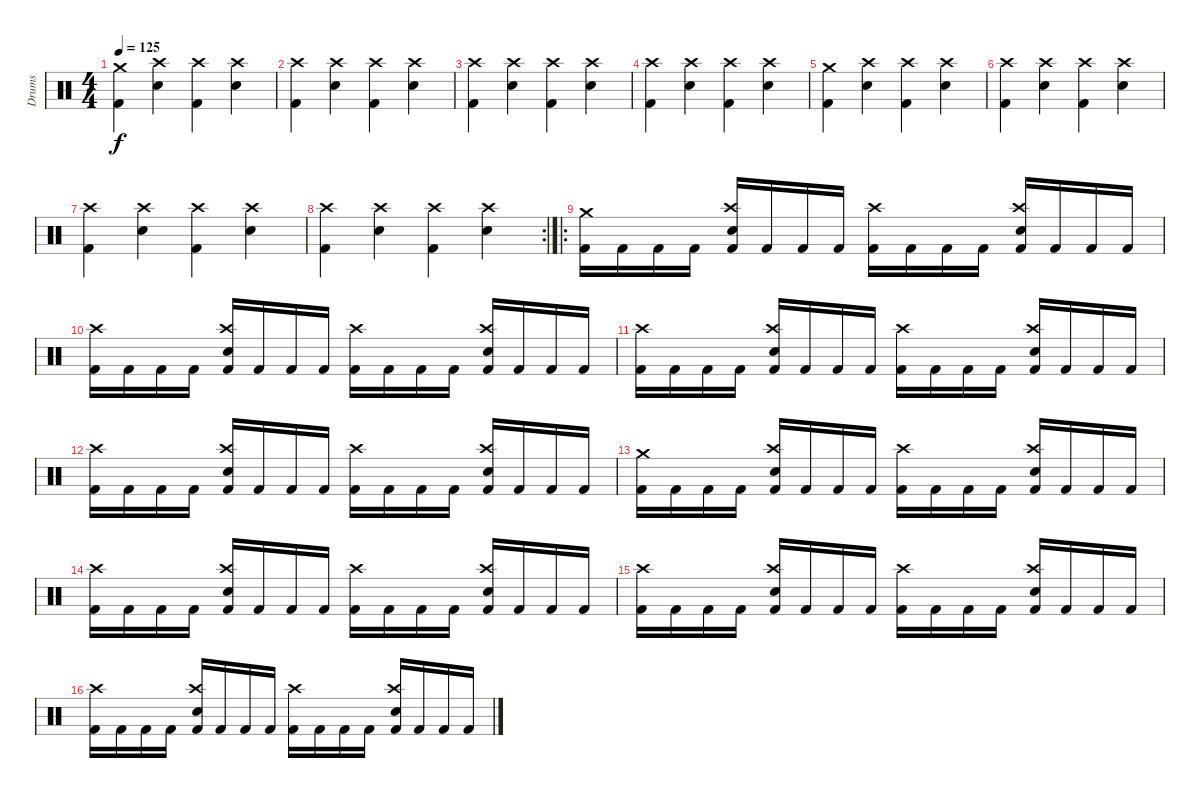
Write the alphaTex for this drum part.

\track ("Drums" "Drums") {instrument percussion}
\staff {score}
\articulation defaults
\ts (4 4)
\tempo 125
\clef neutral
\ks c
("Crash medium (hit)" "Kick (hit) 2").4{dy f} ("Crash high (hit)" "Electric Snare (hit)").4 ("Crash high (hit)" "Kick (hit) 2").4 ("Crash high (hit)" "Electric Snare (hit)").4 |
("Crash high (hit)" "Kick (hit) 2").4 ("Crash high (hit)" "Electric Snare (hit)").4 ("Crash high (hit)" "Kick (hit) 2").4 ("Crash high (hit)" "Electric Snare (hit)").4 |
("Crash high (hit)" "Kick (hit) 2").4 ("Crash high (hit)" "Electric Snare (hit)").4 ("Crash high (hit)" "Kick (hit) 2").4 ("Crash high (hit)" "Electric Snare (hit)").4 |
("Crash high (hit)" "Kick (hit) 2").4 ("Crash high (hit)" "Electric Snare (hit)").4 ("Crash high (hit)" "Kick (hit) 2").4 ("Crash high (hit)" "Electric Snare (hit)").4 |
("Crash medium (hit)" "Kick (hit) 2").4 ("Crash high (hit)" "Electric Snare (hit)").4 ("Crash high (hit)" "Kick (hit) 2").4 ("Crash high (hit)" "Electric Snare (hit)").4 |
("Crash high (hit)" "Kick (hit) 2").4 ("Crash high (hit)" "Electric Snare (hit)").4 ("Crash high (hit)" "Kick (hit) 2").4 ("Crash high (hit)" "Electric Snare (hit)").4 |
("Crash high (hit)" "Kick (hit) 2").4 ("Crash high (hit)" "Electric Snare (hit)").4 ("Crash high (hit)" "Kick (hit) 2").4 ("Crash high (hit)" "Electric Snare (hit)").4 |
\rc 2
("Crash high (hit)" "Kick (hit) 2").4 ("Crash high (hit)" "Electric Snare (hit)").4 ("Crash high (hit)" "Kick (hit) 2").4 ("Crash high (hit)" "Electric Snare (hit)").4 |
\ro
("Crash medium (hit)" "Kick (hit) 2").16 "Kick (hit) 2".16 "Kick (hit) 2".16 "Kick (hit) 2".16 ("Crash high (hit)" "Electric Snare (hit)" "Kick (hit) 2").16 "Kick (hit) 2".16 "Kick (hit) 2".16 "Kick (hit) 2".16 ("Crash high (hit)" "Kick (hit) 2").16 "Kick (hit) 2".16 "Kick (hit) 2".16 "Kick (hit) 2".16 ("Crash high (hit)" "Electric Snare (hit)" "Kick (hit) 2").16 "Kick (hit) 2".16 "Kick (hit) 2".16 "Kick (hit) 2".16 |
("Crash high (hit)" "Kick (hit) 2").16 "Kick (hit) 2".16 "Kick (hit) 2".16 "Kick (hit) 2".16 ("Crash high (hit)" "Electric Snare (hit)" "Kick (hit) 2").16 "Kick (hit) 2".16 "Kick (hit) 2".16 "Kick (hit) 2".16 ("Crash high (hit)" "Kick (hit) 2").16 "Kick (hit) 2".16 "Kick (hit) 2".16 "Kick (hit) 2".16 ("Crash high (hit)" "Electric Snare (hit)" "Kick (hit) 2").16 "Kick (hit) 2".16 "Kick (hit) 2".16 "Kick (hit) 2".16 |
("Crash high (hit)" "Kick (hit) 2").16 "Kick (hit) 2".16 "Kick (hit) 2".16 "Kick (hit) 2".16 ("Crash high (hit)" "Electric Snare (hit)" "Kick (hit) 2").16 "Kick (hit) 2".16 "Kick (hit) 2".16 "Kick (hit) 2".16 ("Crash high (hit)" "Kick (hit) 2").16 "Kick (hit) 2".16 "Kick (hit) 2".16 "Kick (hit) 2".16 ("Crash high (hit)" "Electric Snare (hit)" "Kick (hit) 2").16 "Kick (hit) 2".16 "Kick (hit) 2".16 "Kick (hit) 2".16 |
("Crash high (hit)" "Kick (hit) 2").16 "Kick (hit) 2".16 "Kick (hit) 2".16 "Kick (hit) 2".16 ("Crash high (hit)" "Electric Snare (hit)" "Kick (hit) 2").16 "Kick (hit) 2".16 "Kick (hit) 2".16 "Kick (hit) 2".16 ("Crash high (hit)" "Kick (hit) 2").16 "Kick (hit) 2".16 "Kick (hit) 2".16 "Kick (hit) 2".16 ("Crash high (hit)" "Electric Snare (hit)" "Kick (hit) 2").16 "Kick (hit) 2".16 "Kick (hit) 2".16 "Kick (hit) 2".16 |
("Crash medium (hit)" "Kick (hit) 2").16 "Kick (hit) 2".16 "Kick (hit) 2".16 "Kick (hit) 2".16 ("Crash high (hit)" "Electric Snare (hit)" "Kick (hit) 2").16 "Kick (hit) 2".16 "Kick (hit) 2".16 "Kick (hit) 2".16 ("Crash high (hit)" "Kick (hit) 2").16 "Kick (hit) 2".16 "Kick (hit) 2".16 "Kick (hit) 2".16 ("Crash high (hit)" "Electric Snare (hit)" "Kick (hit) 2").16 "Kick (hit) 2".16 "Kick (hit) 2".16 "Kick (hit) 2".16 |
("Crash high (hit)" "Kick (hit) 2").16 "Kick (hit) 2".16 "Kick (hit) 2".16 "Kick (hit) 2".16 ("Crash high (hit)" "Electric Snare (hit)" "Kick (hit) 2").16 "Kick (hit) 2".16 "Kick (hit) 2".16 "Kick (hit) 2".16 ("Crash high (hit)" "Kick (hit) 2").16 "Kick (hit) 2".16 "Kick (hit) 2".16 "Kick (hit) 2".16 ("Crash high (hit)" "Electric Snare (hit)" "Kick (hit) 2").16 "Kick (hit) 2".16 "Kick (hit) 2".16 "Kick (hit) 2".16 |
("Crash high (hit)" "Kick (hit) 2").16 "Kick (hit) 2".16 "Kick (hit) 2".16 "Kick (hit) 2".16 ("Crash high (hit)" "Electric Snare (hit)" "Kick (hit) 2").16 "Kick (hit) 2".16 "Kick (hit) 2".16 "Kick (hit) 2".16 ("Crash high (hit)" "Kick (hit) 2").16 "Kick (hit) 2".16 "Kick (hit) 2".16 "Kick (hit) 2".16 ("Crash high (hit)" "Electric Snare (hit)" "Kick (hit) 2").16 "Kick (hit) 2".16 "Kick (hit) 2".16 "Kick (hit) 2".16 |
("Crash high (hit)" "Kick (hit) 2").16 "Kick (hit) 2".16 "Kick (hit) 2".16 "Kick (hit) 2".16 ("Crash high (hit)" "Electric Snare (hit)" "Kick (hit) 2").16 "Kick (hit) 2".16 "Kick (hit) 2".16 "Kick (hit) 2".16 ("Crash high (hit)" "Kick (hit) 2").16 "Kick (hit) 2".16 "Kick (hit) 2".16 "Kick (hit) 2".16 ("Crash high (hit)" "Electric Snare (hit)" "Kick (hit) 2").16 "Kick (hit) 2".16 "Kick (hit) 2".16 "Kick (hit) 2".16
